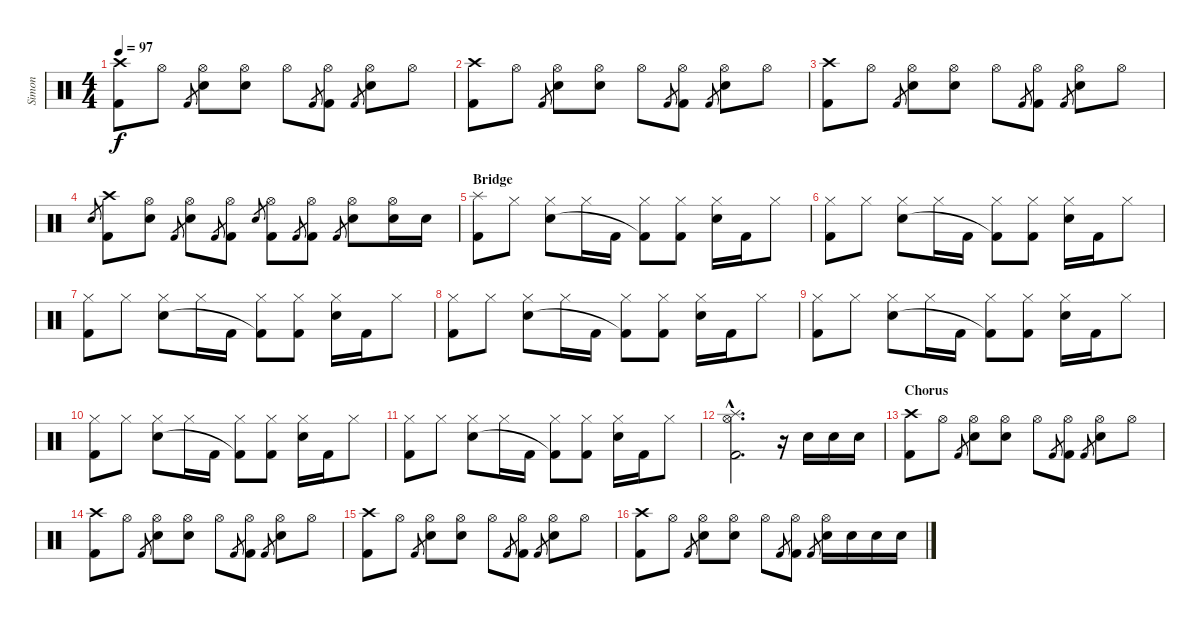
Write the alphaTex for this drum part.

\track ("Simon" "Simon") {instrument percussion}
\staff {score}
\articulation defaults
\ts (4 4)
\tempo 97
\clef neutral
\ks c
("Crash high (hit)" "Kick (hit) 2").8{dy f} "Hi-Hat (open)".8 "Kick (hit) 2".8{gr} ("Hi-Hat (open)" "Electric Snare (hit)").8 ("Hi-Hat (open)" "Electric Snare (hit)").8 "Hi-Hat (open)".8 "Kick (hit) 2".8{gr} ("Hi-Hat (open)" "Kick (hit) 2").8 "Kick (hit) 2".8{gr} ("Hi-Hat (open)" "Electric Snare (hit)").8 "Hi-Hat (open)".8 |
("Crash high (hit)" "Kick (hit) 2").8 "Hi-Hat (open)".8 "Kick (hit) 2".8{gr} ("Hi-Hat (open)" "Electric Snare (hit)").8 ("Hi-Hat (open)" "Electric Snare (hit)").8 "Hi-Hat (open)".8 "Kick (hit) 2".8{gr} ("Hi-Hat (open)" "Kick (hit) 2").8 "Kick (hit) 2".8{gr} ("Hi-Hat (open)" "Electric Snare (hit)").8 "Hi-Hat (open)".8 |
("Crash high (hit)" "Kick (hit) 2").8 "Hi-Hat (open)".8 "Kick (hit) 2".8{gr} ("Hi-Hat (open)" "Electric Snare (hit)").8 ("Hi-Hat (open)" "Electric Snare (hit)").8 "Hi-Hat (open)".8 "Kick (hit) 2".8{gr} ("Hi-Hat (open)" "Kick (hit) 2").8 "Kick (hit) 2".8{gr} ("Hi-Hat (open)" "Electric Snare (hit)").8 "Hi-Hat (open)".8 |
"Electric Snare (hit)".8{gr} ("Crash high (hit)" "Kick (hit) 2").8 ("Hi-Hat (open)" "Electric Snare (hit)").8 "Kick (hit) 2".8{gr} ("Hi-Hat (open)" "Electric Snare (hit)").8 "Kick (hit) 2".8{gr} ("Hi-Hat (open)" "Kick (hit) 2").8 "Electric Snare (hit)".8{gr} ("Hi-Hat (open)" "Kick (hit) 2").8 "Kick (hit) 2".8{gr} ("Hi-Hat (open)" "Kick (hit) 2").8 "Kick (hit) 2".8{gr} ("Hi-Hat (open)" "Electric Snare (hit)").8 ("Hi-Hat (open)" "Electric Snare (hit)").16 "Electric Snare (hit)".16 |
\section ("" "Bridge")
("Splash (hit)" "Kick (hit) 2").8 "Hi-Hat (closed)".8 ("Hi-Hat (closed)" "Electric Snare (hit)").8 "Hi-Hat (closed)".16 "Kick (hit) 2".16 ("Hi-Hat (closed)" "Kick (hit) 2"{t}).8 ("Hi-Hat (closed)" "Kick (hit) 2").8 ("Hi-Hat (closed)" "Electric Snare (hit)").16 "Kick (hit) 2".16 "Hi-Hat (closed)".8 |
("Hi-Hat (closed)" "Kick (hit) 2").8 "Hi-Hat (closed)".8 ("Hi-Hat (closed)" "Electric Snare (hit)").8 "Hi-Hat (closed)".16 "Kick (hit) 2".16 ("Hi-Hat (closed)" "Kick (hit) 2"{t}).8 ("Hi-Hat (closed)" "Kick (hit) 2").8 ("Hi-Hat (closed)" "Electric Snare (hit)").16 "Kick (hit) 2".16 "Hi-Hat (closed)".8 |
("Hi-Hat (closed)" "Kick (hit) 2").8 "Hi-Hat (closed)".8 ("Hi-Hat (closed)" "Electric Snare (hit)").8 "Hi-Hat (closed)".16 "Kick (hit) 2".16 ("Hi-Hat (closed)" "Kick (hit) 2"{t}).8 ("Hi-Hat (closed)" "Kick (hit) 2").8 ("Hi-Hat (closed)" "Electric Snare (hit)").16 "Kick (hit) 2".16 "Hi-Hat (closed)".8 |
("Hi-Hat (closed)" "Kick (hit) 2").8 "Hi-Hat (closed)".8 ("Hi-Hat (closed)" "Electric Snare (hit)").8 "Hi-Hat (closed)".16 "Kick (hit) 2".16 ("Hi-Hat (closed)" "Kick (hit) 2"{t}).8 ("Hi-Hat (closed)" "Kick (hit) 2").8 ("Hi-Hat (closed)" "Electric Snare (hit)").16 "Kick (hit) 2".16 "Hi-Hat (closed)".8 |
("Hi-Hat (closed)" "Kick (hit) 2").8 "Hi-Hat (closed)".8 ("Hi-Hat (closed)" "Electric Snare (hit)").8 "Hi-Hat (closed)".16 "Kick (hit) 2".16 ("Hi-Hat (closed)" "Kick (hit) 2"{t}).8 ("Hi-Hat (closed)" "Kick (hit) 2").8 ("Hi-Hat (closed)" "Electric Snare (hit)").16 "Kick (hit) 2".16 "Hi-Hat (closed)".8 |
("Hi-Hat (closed)" "Kick (hit) 2").8 "Hi-Hat (closed)".8 ("Hi-Hat (closed)" "Electric Snare (hit)").8 "Hi-Hat (closed)".16 "Kick (hit) 2".16 ("Hi-Hat (closed)" "Kick (hit) 2"{t}).8 ("Hi-Hat (closed)" "Kick (hit) 2").8 ("Hi-Hat (closed)" "Electric Snare (hit)").16 "Kick (hit) 2".16 "Hi-Hat (closed)".8 |
("Hi-Hat (closed)" "Kick (hit) 2").8 "Hi-Hat (closed)".8 ("Hi-Hat (closed)" "Electric Snare (hit)").8 "Hi-Hat (closed)".16 "Kick (hit) 2".16 ("Hi-Hat (closed)" "Kick (hit) 2"{t}).8 ("Hi-Hat (closed)" "Kick (hit) 2").8 ("Hi-Hat (closed)" "Electric Snare (hit)").16 "Kick (hit) 2".16 "Hi-Hat (closed)".8 |
("Splash (hit)"{hac} "Hi-Hat (open)"{hac} "Kick (hit) 2"{hac}).2{d} r.16 "Electric Snare (hit)".16 "Electric Snare (hit)".16 "Electric Snare (hit)".16 |
\section ("" "Chorus")
("Crash high (hit)" "Kick (hit) 2").8 "Hi-Hat (open)".8 "Kick (hit) 2".8{gr} ("Hi-Hat (open)" "Electric Snare (hit)").8 ("Hi-Hat (open)" "Electric Snare (hit)").8 "Hi-Hat (open)".8 "Kick (hit) 2".8{gr} ("Hi-Hat (open)" "Kick (hit) 2").8 "Kick (hit) 2".8{gr} ("Hi-Hat (open)" "Electric Snare (hit)").8 "Hi-Hat (open)".8 |
("Crash high (hit)" "Kick (hit) 2").8 "Hi-Hat (open)".8 "Kick (hit) 2".8{gr} ("Hi-Hat (open)" "Electric Snare (hit)").8 ("Hi-Hat (open)" "Electric Snare (hit)").8 "Hi-Hat (open)".8 "Kick (hit) 2".8{gr} ("Hi-Hat (open)" "Kick (hit) 2").8 "Kick (hit) 2".8{gr} ("Hi-Hat (open)" "Electric Snare (hit)").8 "Hi-Hat (open)".8 |
("Crash high (hit)" "Kick (hit) 2").8 "Hi-Hat (open)".8 "Kick (hit) 2".8{gr} ("Hi-Hat (open)" "Electric Snare (hit)").8 ("Hi-Hat (open)" "Electric Snare (hit)").8 "Hi-Hat (open)".8 "Kick (hit) 2".8{gr} ("Hi-Hat (open)" "Kick (hit) 2").8 "Kick (hit) 2".8{gr} ("Hi-Hat (open)" "Electric Snare (hit)").8 "Hi-Hat (open)".8 |
("Crash high (hit)" "Kick (hit) 2").8 "Hi-Hat (open)".8 "Kick (hit) 2".8{gr} ("Hi-Hat (open)" "Electric Snare (hit)").8 ("Hi-Hat (open)" "Electric Snare (hit)").8 "Hi-Hat (open)".8 "Kick (hit) 2".8{gr} ("Hi-Hat (open)" "Kick (hit) 2").8 "Kick (hit) 2".8{gr} ("Hi-Hat (open)" "Electric Snare (hit)").16 "Electric Snare (hit)".16 "Electric Snare (hit)".16 "Electric Snare (hit)".16
